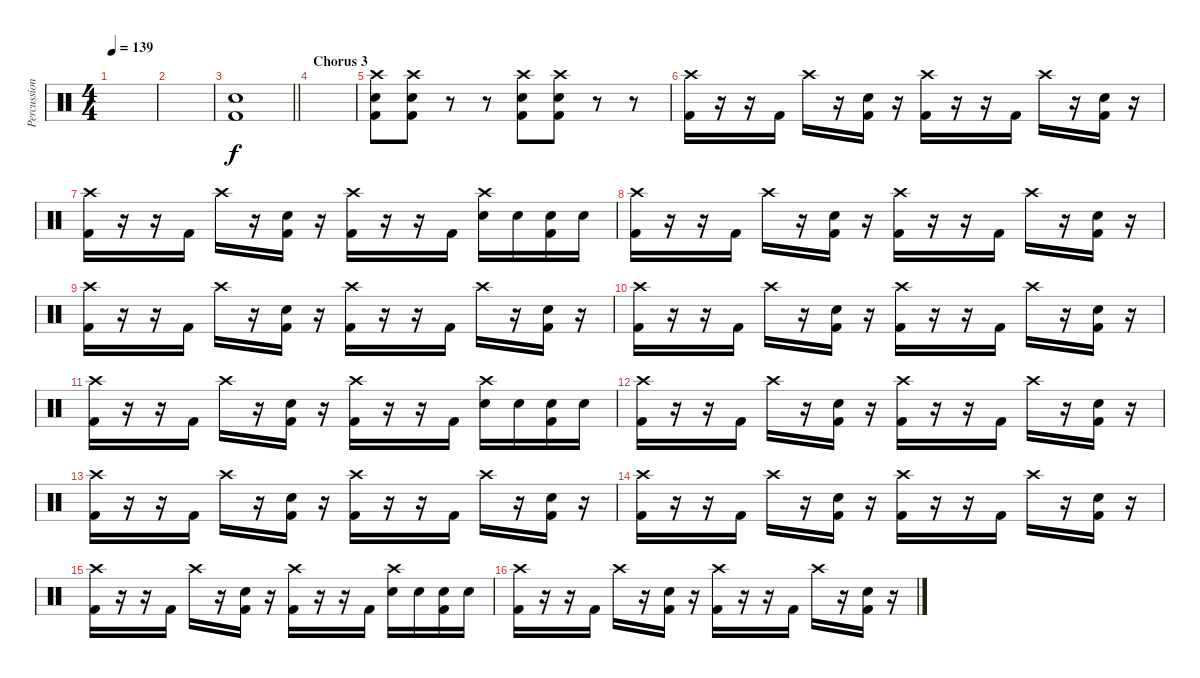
\track ("Percussion" "Percussion") {instrument percussion}
\staff {score}
\articulation defaults
\ts (4 4)
\tempo 139
\clef neutral
\ks c
|
|
\barLineRight lightlight
("Snare (hit) 2" "Kick (hit) 2").1 |
\section ("" "Chorus 3")
|
("Crash high (hit)" "Snare (hit) 2" "Kick (hit) 2").8 ("Crash high (hit)" "Snare (hit) 2" "Kick (hit) 2").8 r.8 r.8 ("Crash high (hit)" "Snare (hit) 2" "Kick (hit) 2").8 ("Crash high (hit)" "Snare (hit) 2" "Kick (hit) 2").8 r.8 r.8 |
("Crash high (hit)" "Kick (hit) 2").16 r.16 r.16 "Kick (hit) 2".16 "Crash high (hit)".16 r.16 ("Snare (hit) 2" "Kick (hit) 2").16 r.16 ("Crash high (hit)" "Kick (hit) 2").16 r.16 r.16 "Kick (hit) 2".16 "Crash high (hit)".16 r.16 ("Snare (hit) 2" "Kick (hit) 2").16 r.16 |
("Crash high (hit)" "Kick (hit) 2").16 r.16 r.16 "Kick (hit) 2".16 "Crash high (hit)".16 r.16 ("Snare (hit) 2" "Kick (hit) 2").16 r.16 ("Crash high (hit)" "Kick (hit) 2").16 r.16 r.16 "Kick (hit) 2".16 ("Crash high (hit)" "Snare (hit) 2").16 "Snare (hit) 2".16 ("Snare (hit) 2" "Kick (hit) 2").16 "Snare (hit) 2".16 |
("Crash high (hit)" "Kick (hit) 2").16 r.16 r.16 "Kick (hit) 2".16 "Crash high (hit)".16 r.16 ("Snare (hit) 2" "Kick (hit) 2").16 r.16 ("Crash high (hit)" "Kick (hit) 2").16 r.16 r.16 "Kick (hit) 2".16 "Crash high (hit)".16 r.16 ("Snare (hit) 2" "Kick (hit) 2").16 r.16 |
("Crash high (hit)" "Kick (hit) 2").16 r.16 r.16 "Kick (hit) 2".16 "Crash high (hit)".16 r.16 ("Snare (hit) 2" "Kick (hit) 2").16 r.16 ("Crash high (hit)" "Kick (hit) 2").16 r.16 r.16 "Kick (hit) 2".16 "Crash high (hit)".16 r.16 ("Snare (hit) 2" "Kick (hit) 2").16 r.16 |
("Crash high (hit)" "Kick (hit) 2").16 r.16 r.16 "Kick (hit) 2".16 "Crash high (hit)".16 r.16 ("Snare (hit) 2" "Kick (hit) 2").16 r.16 ("Crash high (hit)" "Kick (hit) 2").16 r.16 r.16 "Kick (hit) 2".16 "Crash high (hit)".16 r.16 ("Snare (hit) 2" "Kick (hit) 2").16 r.16 |
("Crash high (hit)" "Kick (hit) 2").16 r.16 r.16 "Kick (hit) 2".16 "Crash high (hit)".16 r.16 ("Snare (hit) 2" "Kick (hit) 2").16 r.16 ("Crash high (hit)" "Kick (hit) 2").16 r.16 r.16 "Kick (hit) 2".16 ("Crash high (hit)" "Snare (hit) 2").16 "Snare (hit) 2".16 ("Snare (hit) 2" "Kick (hit) 2").16 "Snare (hit) 2".16 |
("Crash high (hit)" "Kick (hit) 2").16 r.16 r.16 "Kick (hit) 2".16 "Crash high (hit)".16 r.16 ("Snare (hit) 2" "Kick (hit) 2").16 r.16 ("Crash high (hit)" "Kick (hit) 2").16 r.16 r.16 "Kick (hit) 2".16 "Crash high (hit)".16 r.16 ("Snare (hit) 2" "Kick (hit) 2").16 r.16 |
("Crash high (hit)" "Kick (hit) 2").16 r.16 r.16 "Kick (hit) 2".16 "Crash high (hit)".16 r.16 ("Snare (hit) 2" "Kick (hit) 2").16 r.16 ("Crash high (hit)" "Kick (hit) 2").16 r.16 r.16 "Kick (hit) 2".16 "Crash high (hit)".16 r.16 ("Snare (hit) 2" "Kick (hit) 2").16 r.16 |
("Crash high (hit)" "Kick (hit) 2").16 r.16 r.16 "Kick (hit) 2".16 "Crash high (hit)".16 r.16 ("Snare (hit) 2" "Kick (hit) 2").16 r.16 ("Crash high (hit)" "Kick (hit) 2").16 r.16 r.16 "Kick (hit) 2".16 "Crash high (hit)".16 r.16 ("Snare (hit) 2" "Kick (hit) 2").16 r.16 |
("Crash high (hit)" "Kick (hit) 2").16 r.16 r.16 "Kick (hit) 2".16 "Crash high (hit)".16 r.16 ("Snare (hit) 2" "Kick (hit) 2").16 r.16 ("Crash high (hit)" "Kick (hit) 2").16 r.16 r.16 "Kick (hit) 2".16 ("Crash high (hit)" "Snare (hit) 2").16 "Snare (hit) 2".16 ("Snare (hit) 2" "Kick (hit) 2").16 "Snare (hit) 2".16 |
("Crash high (hit)" "Kick (hit) 2").16 r.16 r.16 "Kick (hit) 2".16 "Crash high (hit)".16 r.16 ("Snare (hit) 2" "Kick (hit) 2").16 r.16 ("Crash high (hit)" "Kick (hit) 2").16 r.16 r.16 "Kick (hit) 2".16 "Crash high (hit)".16 r.16 ("Snare (hit) 2" "Kick (hit) 2").16 r.16
